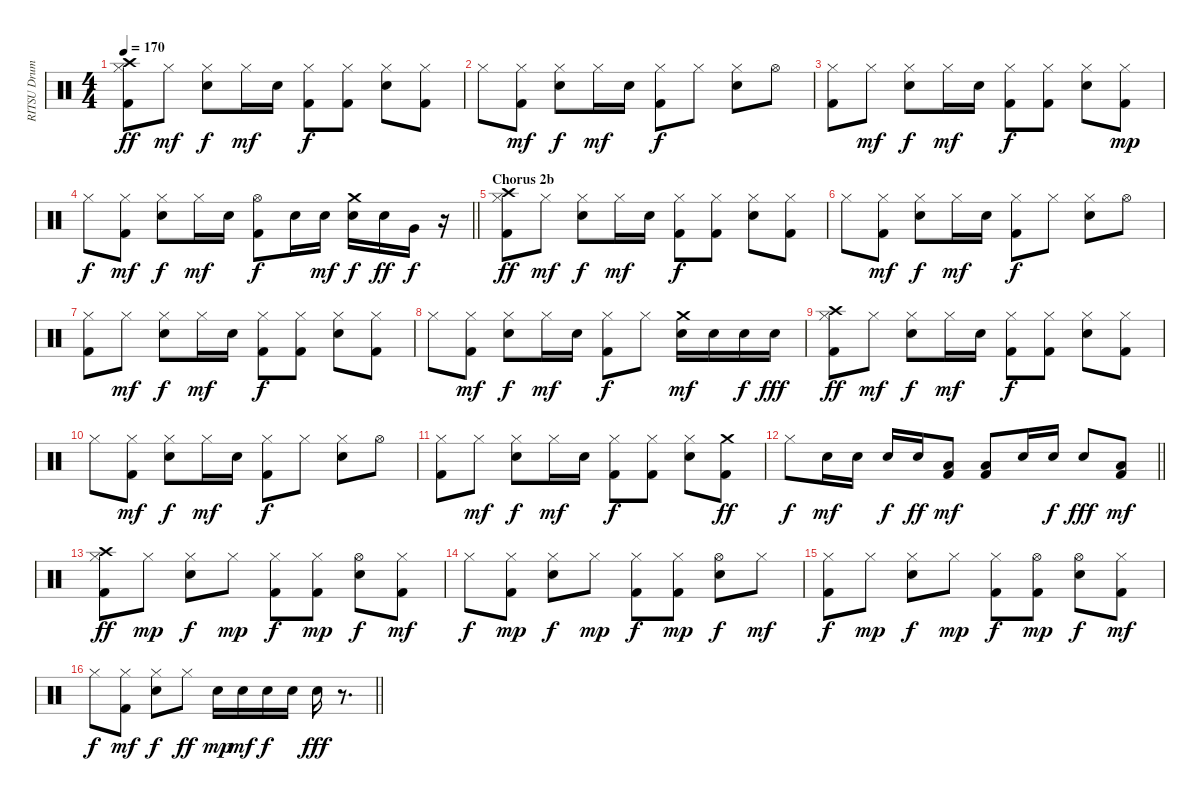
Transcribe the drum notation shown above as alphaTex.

\track ("RITSU Drums" "RITSU Drum") {instrument percussion}
\staff {score}
\articulation defaults
\ts (4 4)
\tempo 170
\clef neutral
\ks c
("Crash high (hit)" "Hi-Hat (closed)" "Kick (hit) 2").8{dy ff} "Hi-Hat (closed)".8{dy mf} ("Hi-Hat (closed)" "Electric Snare (hit)").8{dy f} "Hi-Hat (closed)".16{dy mf} "Electric Snare (hit)".16 ("Hi-Hat (closed)" "Kick (hit) 2").8{dy f} ("Hi-Hat (closed)" "Kick (hit) 2").8 ("Hi-Hat (closed)" "Electric Snare (hit)").8 ("Hi-Hat (closed)" "Kick (hit) 2").8 |
"Hi-Hat (closed)".8 ("Hi-Hat (closed)" "Kick (hit) 2").8{dy mf} ("Hi-Hat (closed)" "Electric Snare (hit)").8{dy f} "Hi-Hat (closed)".16{dy mf} "Electric Snare (hit)".16 ("Hi-Hat (closed)" "Kick (hit) 2").8{dy f} "Hi-Hat (closed)".8 ("Hi-Hat (closed)" "Electric Snare (hit)").8 "Hi-Hat (open)".8 |
("Hi-Hat (closed)" "Kick (hit) 2").8 "Hi-Hat (closed)".8{dy mf} ("Hi-Hat (closed)" "Electric Snare (hit)").8{dy f} "Hi-Hat (closed)".16{dy mf} "Electric Snare (hit)".16 ("Hi-Hat (closed)" "Kick (hit) 2").8{dy f} ("Hi-Hat (closed)" "Kick (hit) 2").8 ("Hi-Hat (closed)" "Electric Snare (hit)").8 ("Hi-Hat (closed)" "Kick (hit) 2").8{dy mp} |
\barLineRight lightlight "Hi-Hat (closed)".8{dy f}
("Hi-Hat (closed)" "Kick (hit) 2").8{dy mf} ("Hi-Hat (closed)" "Electric Snare (hit)").8{dy f} "Hi-Hat (closed)".16{dy mf} "Electric Snare (hit)".16 ("Hi-Hat (open)" "Kick (hit) 2").8{dy f} "Electric Snare (hit)".16 "Electric Snare (hit)".16{dy mf} ("Crash medium (hit)" "Electric Snare (hit)").16{dy f} "Electric Snare (hit)".16{dy ff} "Very Low Tom (hit)".16{dy f} r.16 |
\section ("" "Chorus 2b")
("Crash high (hit)" "Hi-Hat (closed)" "Kick (hit) 2").8{dy ff} "Hi-Hat (closed)".8{dy mf} ("Hi-Hat (closed)" "Electric Snare (hit)").8{dy f} "Hi-Hat (closed)".16{dy mf} "Electric Snare (hit)".16 ("Hi-Hat (closed)" "Kick (hit) 2").8{dy f} ("Hi-Hat (closed)" "Kick (hit) 2").8 ("Hi-Hat (closed)" "Electric Snare (hit)").8 ("Hi-Hat (closed)" "Kick (hit) 2").8 |
"Hi-Hat (closed)".8 ("Hi-Hat (closed)" "Kick (hit) 2").8{dy mf} ("Hi-Hat (closed)" "Electric Snare (hit)").8{dy f} "Hi-Hat (closed)".16{dy mf} "Electric Snare (hit)".16 ("Hi-Hat (closed)" "Kick (hit) 2").8{dy f} "Hi-Hat (closed)".8 ("Hi-Hat (closed)" "Electric Snare (hit)").8 "Hi-Hat (open)".8 |
("Hi-Hat (closed)" "Kick (hit) 2").8 "Hi-Hat (closed)".8{dy mf} ("Hi-Hat (closed)" "Electric Snare (hit)").8{dy f} "Hi-Hat (closed)".16{dy mf} "Electric Snare (hit)".16 ("Hi-Hat (closed)" "Kick (hit) 2").8{dy f} ("Hi-Hat (closed)" "Kick (hit) 2").8 ("Hi-Hat (closed)" "Electric Snare (hit)").8 ("Hi-Hat (closed)" "Kick (hit) 2").8 |
"Hi-Hat (closed)".8 ("Hi-Hat (closed)" "Kick (hit) 2").8{dy mf} ("Hi-Hat (closed)" "Electric Snare (hit)").8{dy f} "Hi-Hat (closed)".16{dy mf} "Electric Snare (hit)".16 ("Hi-Hat (closed)" "Kick (hit) 2").8{dy f} "Hi-Hat (closed)".8 ("Crash medium (hit)" "Electric Snare (hit)").16{dy mf} "Electric Snare (hit)".16 "Electric Snare (hit)".16{dy f} "Electric Snare (hit)".16{dy fff} |
("Crash high (hit)" "Hi-Hat (closed)" "Kick (hit) 2").8{dy ff} "Hi-Hat (closed)".8{dy mf} ("Hi-Hat (closed)" "Electric Snare (hit)").8{dy f} "Hi-Hat (closed)".16{dy mf} "Electric Snare (hit)".16 ("Hi-Hat (closed)" "Kick (hit) 2").8{dy f} ("Hi-Hat (closed)" "Kick (hit) 2").8 ("Hi-Hat (closed)" "Electric Snare (hit)").8 ("Hi-Hat (closed)" "Kick (hit) 2").8 |
"Hi-Hat (closed)".8 ("Hi-Hat (closed)" "Kick (hit) 2").8{dy mf} ("Hi-Hat (closed)" "Electric Snare (hit)").8{dy f} "Hi-Hat (closed)".16{dy mf} "Electric Snare (hit)".16 ("Hi-Hat (closed)" "Kick (hit) 2").8{dy f} "Hi-Hat (closed)".8 ("Hi-Hat (closed)" "Electric Snare (hit)").8 "Hi-Hat (open)".8 |
("Hi-Hat (closed)" "Kick (hit) 2").8 "Hi-Hat (closed)".8{dy mf} ("Hi-Hat (closed)" "Electric Snare (hit)").8{dy f} "Hi-Hat (closed)".16{dy mf} "Electric Snare (hit)".16 ("Hi-Hat (closed)" "Kick (hit) 2").8{dy f} ("Hi-Hat (closed)" "Kick (hit) 2").8 ("Hi-Hat (closed)" "Electric Snare (hit)").8 ("Crash medium (hit)" "Kick (hit) 2").8{dy ff} |
\barLineRight lightlight "Hi-Hat (closed)".8{dy f} "Electric Snare (hit)".16{dy mf} "Electric Snare (hit)".16 "Electric Snare (hit)".16{dy f} "Electric Snare (hit)".16{dy ff}
("Low Tom (hit)" "Kick (hit) 2").8{dy mf} ("Low Floor Tom (hit)" "Kick (hit) 2").8 "Electric Snare (hit)".16 "Electric Snare (hit)".16{dy f} "Electric Snare (hit)".8{dy fff} ("Low Floor Tom (hit)" "Kick (hit) 2").8{dy mf} |
("Crash high (hit)" "Hi-Hat (closed)" "Kick (hit) 2").8{dy ff} "Hi-Hat (closed)".8{dy mp} ("Hi-Hat (closed)" "Electric Snare (hit)").8{dy f} "Hi-Hat (closed)".8{dy mp} ("Hi-Hat (closed)" "Kick (hit) 2").8{dy f} ("Hi-Hat (closed)" "Kick (hit) 2").8{dy mp} ("Hi-Hat (open)" "Electric Snare (hit)").8{dy f} ("Hi-Hat (closed)" "Kick (hit) 2").8{dy mf} |
"Hi-Hat (closed)".8{dy f} ("Hi-Hat (closed)" "Kick (hit) 2").8{dy mp} ("Hi-Hat (closed)" "Electric Snare (hit)").8{dy f} "Hi-Hat (closed)".8{dy mp} ("Hi-Hat (closed)" "Kick (hit) 2").8{dy f} ("Hi-Hat (closed)" "Kick (hit) 2").8{dy mp} ("Hi-Hat (open)" "Electric Snare (hit)").8{dy f} "Hi-Hat (closed)".8{dy mf} |
("Hi-Hat (closed)" "Kick (hit) 2").8{dy f} "Hi-Hat (closed)".8{dy mp} ("Hi-Hat (closed)" "Electric Snare (hit)").8{dy f} "Hi-Hat (closed)".8{dy mp} ("Hi-Hat (closed)" "Kick (hit) 2").8{dy f} ("Hi-Hat (open)" "Kick (hit) 2").8{dy mp} ("Hi-Hat (open)" "Electric Snare (hit)").8{dy f} ("Hi-Hat (closed)" "Kick (hit) 2").8{dy mf} |
\barLineRight lightlight "Hi-Hat (closed)".8{dy f}
("Hi-Hat (closed)" "Kick (hit) 2").8{dy mf} ("Hi-Hat (closed)" "Electric Snare (hit)").8{dy f} "Hi-Hat (closed)".8{dy ff} "Electric Snare (hit)".16{dy mp} "Electric Snare (hit)".16{dy mf} "Electric Snare (hit)".16{dy f} "Electric Snare (hit)".16 "Electric Snare (hit)".16{dy fff} r.8{d}
